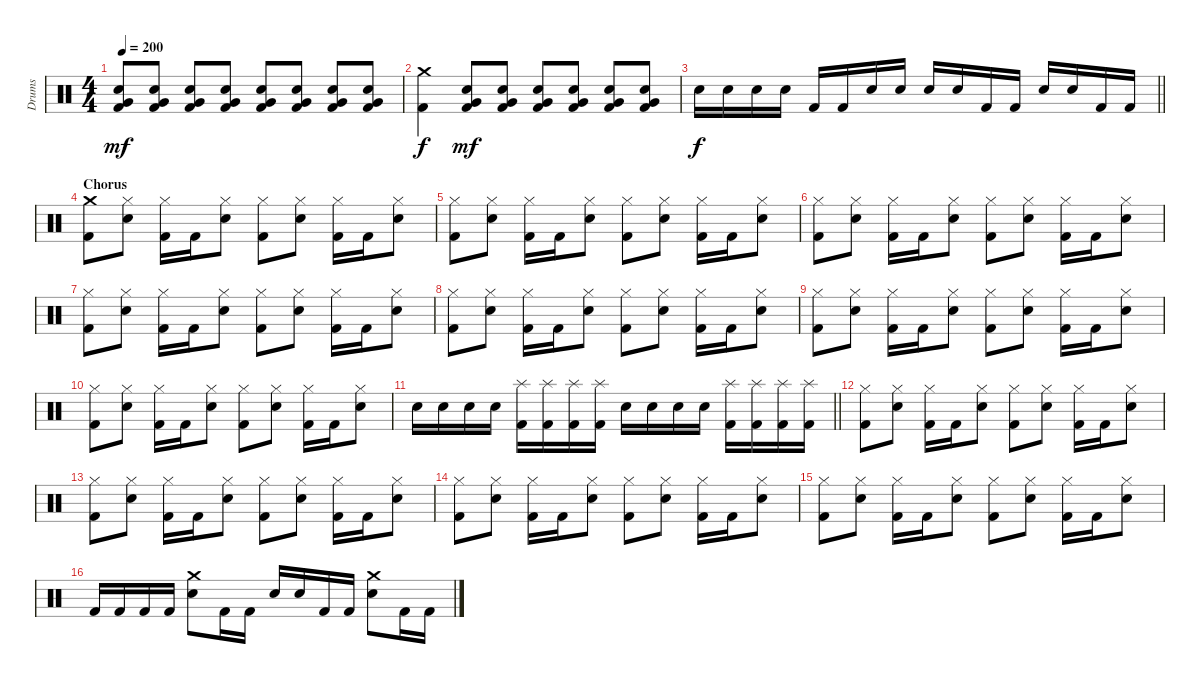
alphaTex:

\track ("Drums" "Drums") {instrument percussion}
\staff {score}
\articulation defaults
\ts (4 4)
\tempo 200
\clef neutral
\ks c
("Kick (hit) 2" "Snare (hit) 2" "Very Low Tom (hit)").8{dy mf} ("Kick (hit) 2" "Snare (hit) 2" "Very Low Tom (hit)").8 ("Kick (hit) 2" "Snare (hit) 2" "Very Low Tom (hit)").8 ("Kick (hit) 2" "Snare (hit) 2" "Very Low Tom (hit)").8 ("Kick (hit) 2" "Snare (hit) 2" "Very Low Tom (hit)").8 ("Kick (hit) 2" "Snare (hit) 2" "Very Low Tom (hit)").8 ("Kick (hit) 2" "Snare (hit) 2" "Very Low Tom (hit)").8 ("Kick (hit) 2" "Snare (hit) 2" "Very Low Tom (hit)").8 |
("Kick (hit) 2" "Crash medium (hit)").4{dy f} ("Kick (hit) 2" "Snare (hit) 2" "Very Low Tom (hit)").8{dy mf} ("Kick (hit) 2" "Snare (hit) 2" "Very Low Tom (hit)").8 ("Kick (hit) 2" "Snare (hit) 2" "Very Low Tom (hit)").8 ("Kick (hit) 2" "Snare (hit) 2" "Very Low Tom (hit)").8 ("Kick (hit) 2" "Snare (hit) 2" "Very Low Tom (hit)").8 ("Kick (hit) 2" "Snare (hit) 2" "Very Low Tom (hit)").8 |
\barLineRight lightlight "Snare (hit) 2".16{dy f} "Snare (hit) 2".16 "Snare (hit) 2".16 "Snare (hit) 2".16 "Kick (hit) 2".16 "Kick (hit) 2".16 "Snare (hit) 2".16 "Snare (hit) 2".16 "Snare (hit) 2".16 "Snare (hit) 2".16 "Kick (hit) 2".16 "Kick (hit) 2".16 "Snare (hit) 2".16 "Snare (hit) 2".16 "Kick (hit) 2".16 "Kick (hit) 2".16
|
\section ("" "Chorus")
("Kick (hit) 2" "Crash medium (hit)").8 ("Snare (hit) 2" "Hi-Hat (closed)").8 ("Kick (hit) 2" "Hi-Hat (closed)").16 "Kick (hit) 2".16 ("Snare (hit) 2" "Hi-Hat (closed)").8 ("Kick (hit) 2" "Hi-Hat (closed)").8 ("Snare (hit) 2" "Hi-Hat (closed)").8 ("Kick (hit) 2" "Hi-Hat (closed)").16 "Kick (hit) 2".16 ("Snare (hit) 2" "Hi-Hat (closed)").8 |
("Kick (hit) 2" "Hi-Hat (closed)").8 ("Snare (hit) 2" "Hi-Hat (closed)").8 ("Kick (hit) 2" "Hi-Hat (closed)").16 "Kick (hit) 2".16 ("Snare (hit) 2" "Hi-Hat (closed)").8 ("Kick (hit) 2" "Hi-Hat (closed)").8 ("Snare (hit) 2" "Hi-Hat (closed)").8 ("Kick (hit) 2" "Hi-Hat (closed)").16 "Kick (hit) 2".16 ("Snare (hit) 2" "Hi-Hat (closed)").8 |
("Kick (hit) 2" "Hi-Hat (closed)").8 ("Snare (hit) 2" "Hi-Hat (closed)").8 ("Kick (hit) 2" "Hi-Hat (closed)").16 "Kick (hit) 2".16 ("Snare (hit) 2" "Hi-Hat (closed)").8 ("Kick (hit) 2" "Hi-Hat (closed)").8 ("Snare (hit) 2" "Hi-Hat (closed)").8 ("Kick (hit) 2" "Hi-Hat (closed)").16 "Kick (hit) 2".16 ("Snare (hit) 2" "Hi-Hat (closed)").8 |
("Kick (hit) 2" "Hi-Hat (closed)").8 ("Snare (hit) 2" "Hi-Hat (closed)").8 ("Kick (hit) 2" "Hi-Hat (closed)").16 "Kick (hit) 2".16 ("Snare (hit) 2" "Hi-Hat (closed)").8 ("Kick (hit) 2" "Hi-Hat (closed)").8 ("Snare (hit) 2" "Hi-Hat (closed)").8 ("Kick (hit) 2" "Hi-Hat (closed)").16 "Kick (hit) 2".16 ("Snare (hit) 2" "Hi-Hat (closed)").8 |
("Kick (hit) 2" "Hi-Hat (closed)").8 ("Snare (hit) 2" "Hi-Hat (closed)").8 ("Kick (hit) 2" "Hi-Hat (closed)").16 "Kick (hit) 2".16 ("Snare (hit) 2" "Hi-Hat (closed)").8 ("Kick (hit) 2" "Hi-Hat (closed)").8 ("Snare (hit) 2" "Hi-Hat (closed)").8 ("Kick (hit) 2" "Hi-Hat (closed)").16 "Kick (hit) 2".16 ("Snare (hit) 2" "Hi-Hat (closed)").8 |
("Kick (hit) 2" "Hi-Hat (closed)").8 ("Snare (hit) 2" "Hi-Hat (closed)").8 ("Kick (hit) 2" "Hi-Hat (closed)").16 "Kick (hit) 2".16 ("Snare (hit) 2" "Hi-Hat (closed)").8 ("Kick (hit) 2" "Hi-Hat (closed)").8 ("Snare (hit) 2" "Hi-Hat (closed)").8 ("Kick (hit) 2" "Hi-Hat (closed)").16 "Kick (hit) 2".16 ("Snare (hit) 2" "Hi-Hat (closed)").8 |
("Kick (hit) 2" "Hi-Hat (closed)").8 ("Snare (hit) 2" "Hi-Hat (closed)").8 ("Kick (hit) 2" "Hi-Hat (closed)").16 "Kick (hit) 2".16 ("Snare (hit) 2" "Hi-Hat (closed)").8 ("Kick (hit) 2" "Hi-Hat (closed)").8 ("Snare (hit) 2" "Hi-Hat (closed)").8 ("Kick (hit) 2" "Hi-Hat (closed)").16 "Kick (hit) 2".16 ("Snare (hit) 2" "Hi-Hat (closed)").8 |
\barLineRight lightlight "Snare (hit) 2".16 "Snare (hit) 2".16 "Snare (hit) 2".16 "Snare (hit) 2".16
("Kick (hit) 2" "Splash (hit)").16 ("Kick (hit) 2" "Splash (hit)").16 ("Kick (hit) 2" "Splash (hit)").16 ("Kick (hit) 2" "Splash (hit)").16 "Snare (hit) 2".16 "Snare (hit) 2".16 "Snare (hit) 2".16 "Snare (hit) 2".16 ("Kick (hit) 2" "Splash (hit)").16 ("Kick (hit) 2" "Splash (hit)").16 ("Kick (hit) 2" "Splash (hit)").16 ("Kick (hit) 2" "Splash (hit)").16 |
\section ("" "")
("Kick (hit) 2" "Hi-Hat (closed)").8 ("Snare (hit) 2" "Hi-Hat (closed)").8 ("Kick (hit) 2" "Hi-Hat (closed)").16 "Kick (hit) 2".16 ("Snare (hit) 2" "Hi-Hat (closed)").8 ("Kick (hit) 2" "Hi-Hat (closed)").8 ("Snare (hit) 2" "Hi-Hat (closed)").8 ("Kick (hit) 2" "Hi-Hat (closed)").16 "Kick (hit) 2".16 ("Snare (hit) 2" "Hi-Hat (closed)").8 |
("Kick (hit) 2" "Hi-Hat (closed)").8 ("Snare (hit) 2" "Hi-Hat (closed)").8 ("Kick (hit) 2" "Hi-Hat (closed)").16 "Kick (hit) 2".16 ("Snare (hit) 2" "Hi-Hat (closed)").8 ("Kick (hit) 2" "Hi-Hat (closed)").8 ("Snare (hit) 2" "Hi-Hat (closed)").8 ("Kick (hit) 2" "Hi-Hat (closed)").16 "Kick (hit) 2".16 ("Snare (hit) 2" "Hi-Hat (closed)").8 |
("Kick (hit) 2" "Hi-Hat (closed)").8 ("Snare (hit) 2" "Hi-Hat (closed)").8 ("Kick (hit) 2" "Hi-Hat (closed)").16 "Kick (hit) 2".16 ("Snare (hit) 2" "Hi-Hat (closed)").8 ("Kick (hit) 2" "Hi-Hat (closed)").8 ("Snare (hit) 2" "Hi-Hat (closed)").8 ("Kick (hit) 2" "Hi-Hat (closed)").16 "Kick (hit) 2".16 ("Snare (hit) 2" "Hi-Hat (closed)").8 |
("Kick (hit) 2" "Hi-Hat (closed)").8 ("Snare (hit) 2" "Hi-Hat (closed)").8 ("Kick (hit) 2" "Hi-Hat (closed)").16 "Kick (hit) 2".16 ("Snare (hit) 2" "Hi-Hat (closed)").8 ("Kick (hit) 2" "Hi-Hat (closed)").8 ("Snare (hit) 2" "Hi-Hat (closed)").8 ("Kick (hit) 2" "Hi-Hat (closed)").16 "Kick (hit) 2".16 ("Snare (hit) 2" "Hi-Hat (closed)").8 |
"Kick (hit) 2".16 "Kick (hit) 2".16 "Kick (hit) 2".16 "Kick (hit) 2".16 ("Snare (hit) 2" "Crash medium (hit)").8 "Kick (hit) 2".16 "Kick (hit) 2".16 "Snare (hit) 2".16 "Snare (hit) 2".16 "Kick (hit) 2".16 "Kick (hit) 2".16 ("Snare (hit) 2" "Crash medium (hit)").8 "Kick (hit) 2".16 "Kick (hit) 2".16
